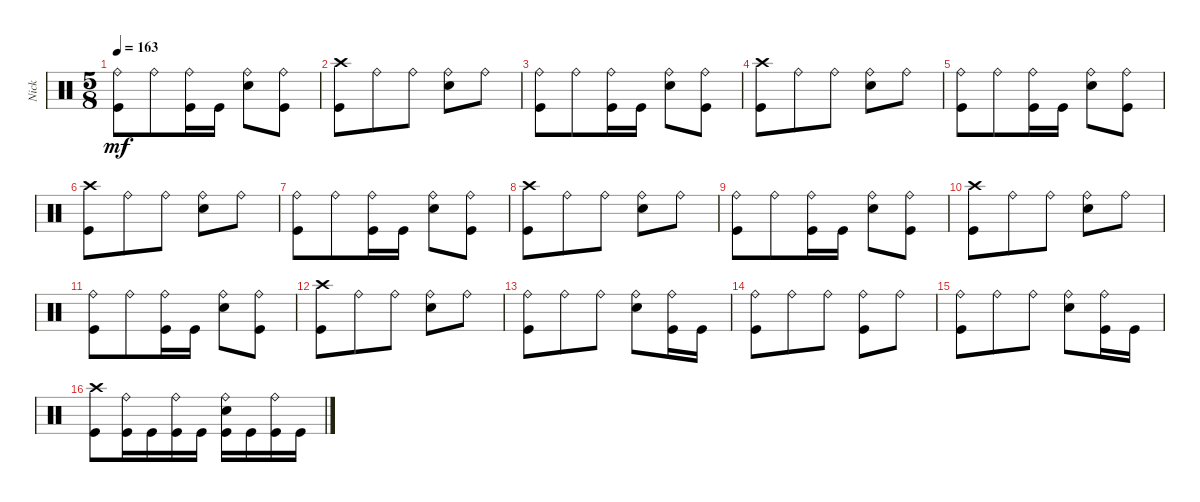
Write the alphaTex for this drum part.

\track ("Nick" "Nick") {instrument percussion}
\staff {score}
\articulation defaults
\ts (5 8)
\tempo 163
\clef neutral
\ks c
("Kick (hit)" "Ride (bell)").8{dy mf} "Ride (bell)".8 ("Kick (hit)" "Ride (bell)").16 "Kick (hit)".16 ("Ride (bell)" "Snare (hit) 2").8 ("Kick (hit)" "Ride (bell)").8 |
("Kick (hit)" "Crash high (hit)").8 "Ride (bell)".8 "Ride (bell)".8 ("Ride (bell)" "Snare (hit) 2").8 "Ride (bell)".8 |
("Kick (hit)" "Ride (bell)").8 "Ride (bell)".8 ("Kick (hit)" "Ride (bell)").16 "Kick (hit)".16 ("Ride (bell)" "Snare (hit) 2").8 ("Kick (hit)" "Ride (bell)").8 |
("Kick (hit)" "Crash high (hit)").8 "Ride (bell)".8 "Ride (bell)".8 ("Ride (bell)" "Snare (hit) 2").8 "Ride (bell)".8 |
("Kick (hit)" "Ride (bell)").8 "Ride (bell)".8 ("Kick (hit)" "Ride (bell)").16 "Kick (hit)".16 ("Ride (bell)" "Snare (hit) 2").8 ("Kick (hit)" "Ride (bell)").8 |
("Kick (hit)" "Crash high (hit)").8 "Ride (bell)".8 "Ride (bell)".8 ("Ride (bell)" "Snare (hit) 2").8 "Ride (bell)".8 |
("Kick (hit)" "Ride (bell)").8 "Ride (bell)".8 ("Kick (hit)" "Ride (bell)").16 "Kick (hit)".16 ("Ride (bell)" "Snare (hit) 2").8 ("Kick (hit)" "Ride (bell)").8 |
("Kick (hit)" "Crash high (hit)").8 "Ride (bell)".8 "Ride (bell)".8 ("Ride (bell)" "Snare (hit) 2").8 "Ride (bell)".8 |
("Kick (hit)" "Ride (bell)").8 "Ride (bell)".8 ("Kick (hit)" "Ride (bell)").16 "Kick (hit)".16 ("Ride (bell)" "Snare (hit) 2").8 ("Kick (hit)" "Ride (bell)").8 |
("Kick (hit)" "Crash high (hit)").8 "Ride (bell)".8 "Ride (bell)".8 ("Ride (bell)" "Snare (hit) 2").8 "Ride (bell)".8 |
("Kick (hit)" "Ride (bell)").8 "Ride (bell)".8 ("Kick (hit)" "Ride (bell)").16 "Kick (hit)".16 ("Ride (bell)" "Snare (hit) 2").8 ("Kick (hit)" "Ride (bell)").8 |
("Kick (hit)" "Crash high (hit)").8 "Ride (bell)".8 "Ride (bell)".8 ("Ride (bell)" "Snare (hit) 2").8 "Ride (bell)".8 |
("Kick (hit)" "Ride (bell)").8 "Ride (bell)".8 "Ride (bell)".8 ("Ride (bell)" "Snare (hit) 2").8 ("Kick (hit)" "Ride (bell)").16 "Kick (hit)".16 |
("Kick (hit)" "Ride (bell)").8 "Ride (bell)".8 "Ride (bell)".8 ("Kick (hit)" "Ride (bell)").8 "Ride (bell)".8 |
("Kick (hit)" "Ride (bell)").8 "Ride (bell)".8 "Ride (bell)".8 ("Ride (bell)" "Snare (hit) 2").8 ("Kick (hit)" "Ride (bell)").16 "Kick (hit)".16 |
("Kick (hit)" "Crash high (hit)").8 ("Kick (hit)" "Ride (bell)").16 "Kick (hit)".16 ("Kick (hit)" "Ride (bell)").16 "Kick (hit)".16 ("Kick (hit)" "Ride (bell)" "Snare (hit) 2").16 "Kick (hit)".16 ("Kick (hit)" "Ride (bell)").16 "Kick (hit)".16
